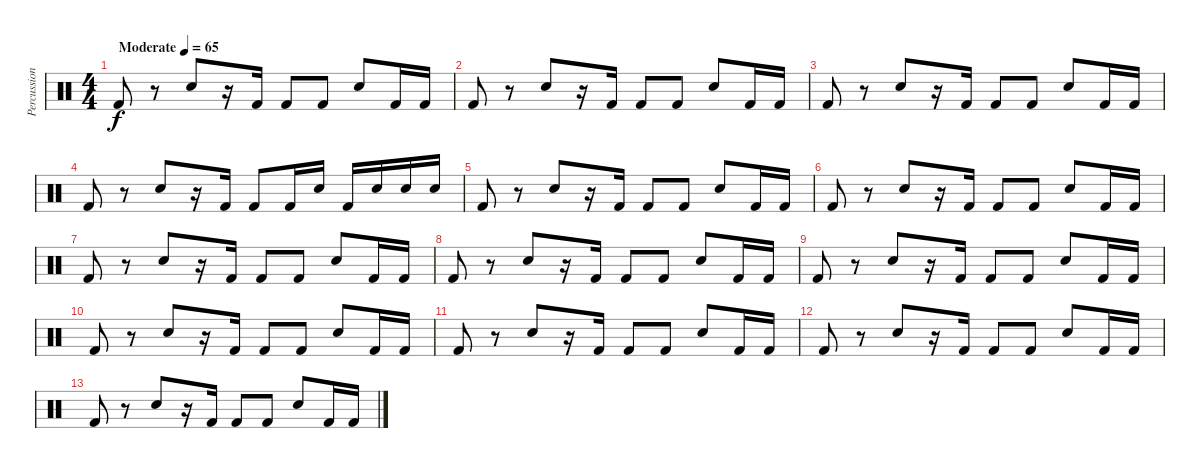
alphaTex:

\track ("Percussion" "Percussion") {instrument percussion}
\staff {score}
\articulation defaults
\ts (4 4)
\tempo (65 "Moderate")
\clef neutral
\ks c "Kick (hit) 2".8{dy f}
r.8 "Electric Snare (hit)".8 r.16 "Kick (hit) 2".16 "Kick (hit) 2".8 "Kick (hit) 2".8 "Electric Snare (hit)".8 "Kick (hit) 2".16 "Kick (hit) 2".16 |
"Kick (hit) 2".8 r.8 "Electric Snare (hit)".8 r.16 "Kick (hit) 2".16 "Kick (hit) 2".8 "Kick (hit) 2".8 "Electric Snare (hit)".8 "Kick (hit) 2".16 "Kick (hit) 2".16 |
"Kick (hit) 2".8 r.8 "Electric Snare (hit)".8 r.16 "Kick (hit) 2".16 "Kick (hit) 2".8 "Kick (hit) 2".8 "Electric Snare (hit)".8 "Kick (hit) 2".16 "Kick (hit) 2".16 |
"Kick (hit) 2".8 r.8 "Electric Snare (hit)".8 r.16 "Kick (hit) 2".16 "Kick (hit) 2".8 "Kick (hit) 2".16 "Electric Snare (hit)".16 "Kick (hit) 2".16 "Electric Snare (hit)".16 "Electric Snare (hit)".16 "Electric Snare (hit)".16 |
"Kick (hit) 2".8 r.8 "Electric Snare (hit)".8 r.16 "Kick (hit) 2".16 "Kick (hit) 2".8 "Kick (hit) 2".8 "Electric Snare (hit)".8 "Kick (hit) 2".16 "Kick (hit) 2".16 |
"Kick (hit) 2".8 r.8 "Electric Snare (hit)".8 r.16 "Kick (hit) 2".16 "Kick (hit) 2".8 "Kick (hit) 2".8 "Electric Snare (hit)".8 "Kick (hit) 2".16 "Kick (hit) 2".16 |
"Kick (hit) 2".8 r.8 "Electric Snare (hit)".8 r.16 "Kick (hit) 2".16 "Kick (hit) 2".8 "Kick (hit) 2".8 "Electric Snare (hit)".8 "Kick (hit) 2".16 "Kick (hit) 2".16 |
"Kick (hit) 2".8 r.8 "Electric Snare (hit)".8 r.16 "Kick (hit) 2".16 "Kick (hit) 2".8 "Kick (hit) 2".8 "Electric Snare (hit)".8 "Kick (hit) 2".16 "Kick (hit) 2".16 |
"Kick (hit) 2".8 r.8 "Electric Snare (hit)".8 r.16 "Kick (hit) 2".16 "Kick (hit) 2".8 "Kick (hit) 2".8 "Electric Snare (hit)".8 "Kick (hit) 2".16 "Kick (hit) 2".16 |
"Kick (hit) 2".8 r.8 "Electric Snare (hit)".8 r.16 "Kick (hit) 2".16 "Kick (hit) 2".8 "Kick (hit) 2".8 "Electric Snare (hit)".8 "Kick (hit) 2".16 "Kick (hit) 2".16 |
"Kick (hit) 2".8 r.8 "Electric Snare (hit)".8 r.16 "Kick (hit) 2".16 "Kick (hit) 2".8 "Kick (hit) 2".8 "Electric Snare (hit)".8 "Kick (hit) 2".16 "Kick (hit) 2".16 |
"Kick (hit) 2".8 r.8 "Electric Snare (hit)".8 r.16 "Kick (hit) 2".16 "Kick (hit) 2".8 "Kick (hit) 2".8 "Electric Snare (hit)".8 "Kick (hit) 2".16 "Kick (hit) 2".16 |
"Kick (hit) 2".8 r.8 "Electric Snare (hit)".8 r.16 "Kick (hit) 2".16 "Kick (hit) 2".8 "Kick (hit) 2".8 "Electric Snare (hit)".8 "Kick (hit) 2".16 "Kick (hit) 2".16
